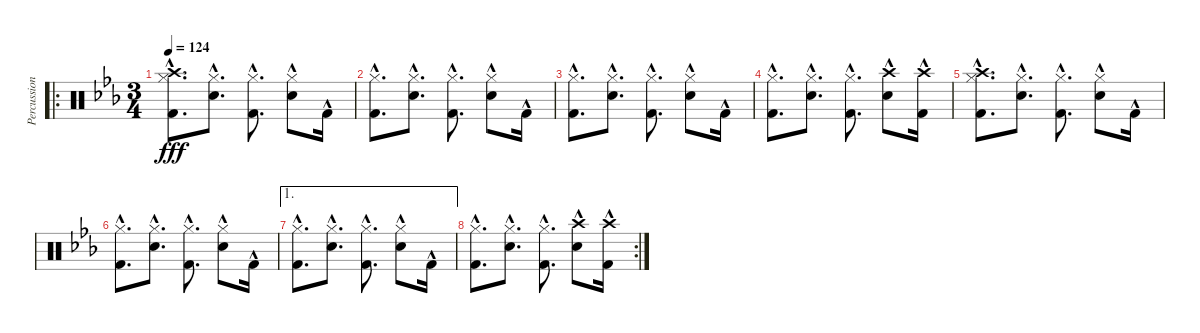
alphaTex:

\track ("Percussion" "Percussion") {instrument percussion}
\staff {score}
\articulation defaults
\ro
\ts (3 4)
\tempo 124
\clef neutral
\ks cminor
("Hi-Hat (closed)" "Kick (hit) 2"{hac} "Crash high (hit)").8{d dy fff} ("Hi-Hat (closed)" "Snare (hit) 2"{hac}).8{d} ("Hi-Hat (closed)" "Kick (hit) 2"{hac}).8{d} ("Hi-Hat (closed)" "Snare (hit) 2"{hac}).8 "Kick (hit) 2"{hac}.16 |
("Hi-Hat (closed)" "Kick (hit) 2"{hac}).8{d} ("Hi-Hat (closed)" "Snare (hit) 2"{hac}).8{d} ("Hi-Hat (closed)" "Kick (hit) 2"{hac}).8{d} ("Hi-Hat (closed)" "Snare (hit) 2"{hac}).8 "Kick (hit) 2"{hac}.16 |
("Hi-Hat (closed)" "Kick (hit) 2"{hac}).8{d} ("Hi-Hat (closed)" "Snare (hit) 2"{hac}).8{d} ("Hi-Hat (closed)" "Kick (hit) 2"{hac}).8{d} ("Hi-Hat (closed)" "Snare (hit) 2"{hac}).8 "Kick (hit) 2"{hac}.16 |
("Hi-Hat (closed)" "Kick (hit) 2"{hac}).8{d} ("Hi-Hat (closed)" "Snare (hit) 2"{hac}).8{d} ("Hi-Hat (closed)" "Kick (hit) 2"{hac}).8{d} ("Snare (hit) 2"{hac} "Crash high (hit)").8 ("Kick (hit) 2"{hac} "Crash high (hit)").16 |
("Hi-Hat (closed)" "Kick (hit) 2"{hac} "Crash high (hit)").8{d} ("Hi-Hat (closed)" "Snare (hit) 2"{hac}).8{d} ("Hi-Hat (closed)" "Kick (hit) 2"{hac}).8{d} ("Hi-Hat (closed)" "Snare (hit) 2"{hac}).8 "Kick (hit) 2"{hac}.16 |
("Hi-Hat (closed)" "Kick (hit) 2"{hac}).8{d} ("Hi-Hat (closed)" "Snare (hit) 2"{hac}).8{d} ("Hi-Hat (closed)" "Kick (hit) 2"{hac}).8{d} ("Hi-Hat (closed)" "Snare (hit) 2"{hac}).8 "Kick (hit) 2"{hac}.16 |
\ae 1
("Hi-Hat (closed)" "Kick (hit) 2"{hac}).8{d} ("Hi-Hat (closed)" "Snare (hit) 2"{hac}).8{d} ("Hi-Hat (closed)" "Kick (hit) 2"{hac}).8{d} ("Hi-Hat (closed)" "Snare (hit) 2"{hac}).8 "Kick (hit) 2"{hac}.16 |
\rc 2
("Hi-Hat (closed)" "Kick (hit) 2"{hac}).8{d} ("Hi-Hat (closed)" "Snare (hit) 2"{hac}).8{d} ("Hi-Hat (closed)" "Kick (hit) 2"{hac}).8{d} ("Snare (hit) 2"{hac} "Crash high (hit)").8 ("Kick (hit) 2"{hac} "Crash high (hit)").16
